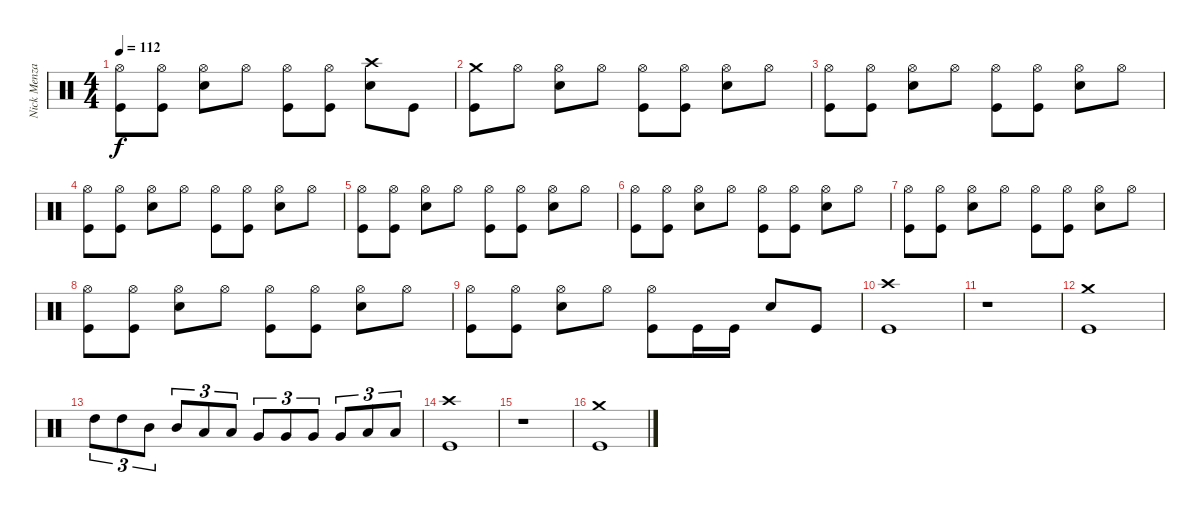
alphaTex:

\track ("Nick Menza" "Nick Menza") {instrument percussion}
\staff {score}
\articulation defaults
\ts (4 4)
\tempo 112
\clef neutral
\ks c
("Hi-Hat (open)" "Kick (hit)").8{dy f} ("Hi-Hat (open)" "Kick (hit)").8 ("Hi-Hat (open)" "Snare (hit) 2").8 "Hi-Hat (open)".8 ("Hi-Hat (open)" "Kick (hit)").8 ("Hi-Hat (open)" "Kick (hit)").8 ("Crash high (hit)" "Snare (hit) 2").8 "Kick (hit)".8 |
("Crash medium (hit)" "Kick (hit)").8 "Hi-Hat (open)".8 ("Hi-Hat (open)" "Snare (hit) 2").8 "Hi-Hat (open)".8 ("Hi-Hat (open)" "Kick (hit)").8 ("Hi-Hat (open)" "Kick (hit)").8 ("Hi-Hat (open)" "Snare (hit) 2").8 "Hi-Hat (open)".8 |
("Hi-Hat (open)" "Kick (hit)").8 ("Hi-Hat (open)" "Kick (hit)").8 ("Hi-Hat (open)" "Snare (hit) 2").8 "Hi-Hat (open)".8 ("Hi-Hat (open)" "Kick (hit)").8 ("Hi-Hat (open)" "Kick (hit)").8 ("Hi-Hat (open)" "Snare (hit) 2").8 "Hi-Hat (open)".8 |
("Hi-Hat (open)" "Kick (hit)").8 ("Hi-Hat (open)" "Kick (hit)").8 ("Hi-Hat (open)" "Snare (hit) 2").8 "Hi-Hat (open)".8 ("Hi-Hat (open)" "Kick (hit)").8 ("Hi-Hat (open)" "Kick (hit)").8 ("Hi-Hat (open)" "Snare (hit) 2").8 "Hi-Hat (open)".8 |
("Hi-Hat (open)" "Kick (hit)").8 ("Hi-Hat (open)" "Kick (hit)").8 ("Hi-Hat (open)" "Snare (hit) 2").8 "Hi-Hat (open)".8 ("Hi-Hat (open)" "Kick (hit)").8 ("Hi-Hat (open)" "Kick (hit)").8 ("Hi-Hat (open)" "Snare (hit) 2").8 "Hi-Hat (open)".8 |
("Hi-Hat (open)" "Kick (hit)").8 ("Hi-Hat (open)" "Kick (hit)").8 ("Hi-Hat (open)" "Snare (hit) 2").8 "Hi-Hat (open)".8 ("Hi-Hat (open)" "Kick (hit)").8 ("Hi-Hat (open)" "Kick (hit)").8 ("Hi-Hat (open)" "Snare (hit) 2").8 "Hi-Hat (open)".8 |
("Hi-Hat (open)" "Kick (hit)").8 ("Hi-Hat (open)" "Kick (hit)").8 ("Hi-Hat (open)" "Snare (hit) 2").8 "Hi-Hat (open)".8 ("Hi-Hat (open)" "Kick (hit)").8 ("Hi-Hat (open)" "Kick (hit)").8 ("Hi-Hat (open)" "Snare (hit) 2").8 "Hi-Hat (open)".8 |
("Hi-Hat (open)" "Kick (hit)").8 ("Hi-Hat (open)" "Kick (hit)").8 ("Hi-Hat (open)" "Snare (hit) 2").8 "Hi-Hat (open)".8 ("Hi-Hat (open)" "Kick (hit)").8 ("Hi-Hat (open)" "Kick (hit)").8 ("Hi-Hat (open)" "Snare (hit) 2").8 "Hi-Hat (open)".8 |
("Hi-Hat (open)" "Kick (hit)").8 ("Hi-Hat (open)" "Kick (hit)").8 ("Hi-Hat (open)" "Snare (hit) 2").8 "Hi-Hat (open)".8 ("Hi-Hat (open)" "Kick (hit)").8 "Kick (hit)".16 "Kick (hit)".16 "Snare (hit) 2".8 "Kick (hit)".8 |
("Crash high (hit)" "Kick (hit)").1 |
r.1 |
("Crash medium (hit)" "Kick (hit)").1 |
"High Tom (hit)".8{tu (3 2)} "High Tom (hit)".8{tu (3 2)} "Mid Tom (hit)".8{tu (3 2)} "Mid Tom (hit)".8{tu (3 2)} "Low Tom (hit)".8{tu (3 2)} "Low Tom (hit)".8{tu (3 2)} "Very Low Tom (hit)".8{tu (3 2)} "Very Low Tom (hit)".8{tu (3 2)} "Very Low Tom (hit)".8{tu (3 2)} "Very Low Tom (hit)".8{tu (3 2)} "Low Floor Tom (hit)".8{tu (3 2)} "Low Floor Tom (hit)".8{tu (3 2)} |
("Crash high (hit)" "Kick (hit)").1 |
r.1 |
("Crash medium (hit)" "Kick (hit)").1
